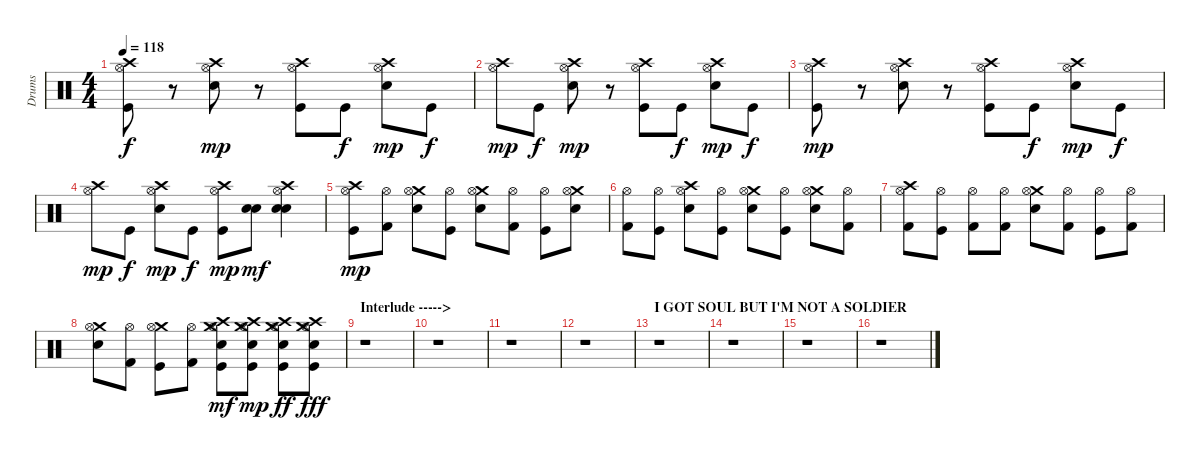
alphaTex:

\track ("Drums" "Drums") {instrument percussion}
\staff {score}
\articulation defaults
\ts (4 4)
\tempo 118
\clef neutral
\ks c
("Crash high (hit)" "Hi-Hat (open)" "Kick (hit)").8{dy f} r.8 ("Crash high (hit)" "Hi-Hat (open)" "Snare (hit) 2").8{dy mp} r.8 ("Crash high (hit)" "Hi-Hat (open)" "Kick (hit)").8 "Kick (hit)".8{dy f} ("Crash high (hit)" "Hi-Hat (open)" "Snare (hit) 2").8{dy mp} "Kick (hit)".8{dy f} |
("Crash high (hit)" "Hi-Hat (open)").8{dy mp} "Kick (hit)".8{dy f} ("Crash high (hit)" "Hi-Hat (open)" "Snare (hit) 2").8{dy mp} r.8 ("Crash high (hit)" "Hi-Hat (open)" "Kick (hit)").8 "Kick (hit)".8{dy f} ("Crash high (hit)" "Hi-Hat (open)" "Snare (hit) 2").8{dy mp} "Kick (hit)".8{dy f} |
("Crash high (hit)" "Hi-Hat (open)" "Kick (hit)").8{dy mp} r.8 ("Crash high (hit)" "Hi-Hat (open)" "Snare (hit) 2").8 r.8 ("Crash high (hit)" "Hi-Hat (open)" "Kick (hit)").8 "Kick (hit)".8{dy f} ("Crash high (hit)" "Hi-Hat (open)" "Snare (hit) 2").8{dy mp} "Kick (hit)".8{dy f} |
("Crash high (hit)" "Hi-Hat (open)").8{dy mp} "Kick (hit)".8{dy f} ("Crash high (hit)" "Hi-Hat (open)" "Snare (hit) 2").8{dy mp} "Kick (hit)".8{dy f} ("Crash high (hit)" "Hi-Hat (open)" "Kick (hit)").8{dy mp} ("Electric Snare (hit)" "Snare (hit) 2").8{dy mf} ("Crash high (hit)" "Hi-Hat (open)" "Electric Snare (hit)" "Snare (hit) 2").4 |
("Crash high (hit)" "Hi-Hat (open)" "Kick (hit)").8{dy mp} ("Hi-Hat (open)" "Kick (hit) 2").8 ("Crash medium (hit)" "Hi-Hat (open)" "Snare (hit) 2").8 ("Hi-Hat (open)" "Kick (hit)").8 ("Crash medium (hit)" "Hi-Hat (open)" "Snare (hit) 2").8 ("Hi-Hat (open)" "Kick (hit) 2").8 ("Hi-Hat (open)" "Kick (hit)").8 ("Crash medium (hit)" "Hi-Hat (open)" "Snare (hit) 2").8 |
("Hi-Hat (open)" "Kick (hit) 2").8 ("Hi-Hat (open)" "Kick (hit)").8 ("Crash high (hit)" "Hi-Hat (open)" "Snare (hit) 2").8 ("Hi-Hat (open)" "Kick (hit)").8 ("Crash medium (hit)" "Hi-Hat (open)" "Snare (hit) 2").8 ("Hi-Hat (open)" "Kick (hit)").8 ("Crash medium (hit)" "Hi-Hat (open)" "Snare (hit) 2").8 ("Hi-Hat (open)" "Kick (hit) 2").8 |
("Crash high (hit)" "Hi-Hat (open)" "Kick (hit) 2").8 ("Hi-Hat (open)" "Kick (hit)").8 ("Hi-Hat (open)" "Kick (hit) 2").8 ("Hi-Hat (open)" "Kick (hit) 2").8 ("Crash medium (hit)" "Hi-Hat (open)" "Snare (hit) 2").8 ("Hi-Hat (open)" "Kick (hit) 2").8 ("Hi-Hat (open)" "Kick (hit)").8 ("Hi-Hat (open)" "Kick (hit) 2").8 |
("Crash medium (hit)" "Hi-Hat (open)" "Snare (hit) 2").8 ("Hi-Hat (open)" "Kick (hit) 2").8 ("Crash medium (hit)" "Hi-Hat (open)" "Kick (hit)").8 ("Hi-Hat (open)" "Kick (hit) 2").8 ("Crash medium (hit)" "Hi-Hat (open)" "Crash high (hit)" "Kick (hit)" "Snare (hit) 2").8{dy mf} ("Crash medium (hit)" "Hi-Hat (open)" "Crash high (hit)" "Kick (hit)" "Snare (hit) 2").8{dy mp} ("Crash medium (hit)" "Hi-Hat (open)" "Crash high (hit)" "Kick (hit)" "Snare (hit) 2").8{dy ff} ("Crash medium (hit)" "Hi-Hat (open)" "Crash high (hit)" "Kick (hit)" "Snare (hit) 2").8{dy fff} |
\section ("" "Interlude ----->")
r.1 |
r.1 |
r.1 |
r.1 |
\section ("" "I GOT SOUL BUT I'M NOT A SOLDIER")
r.1 |
r.1 |
r.1 |
r.1
